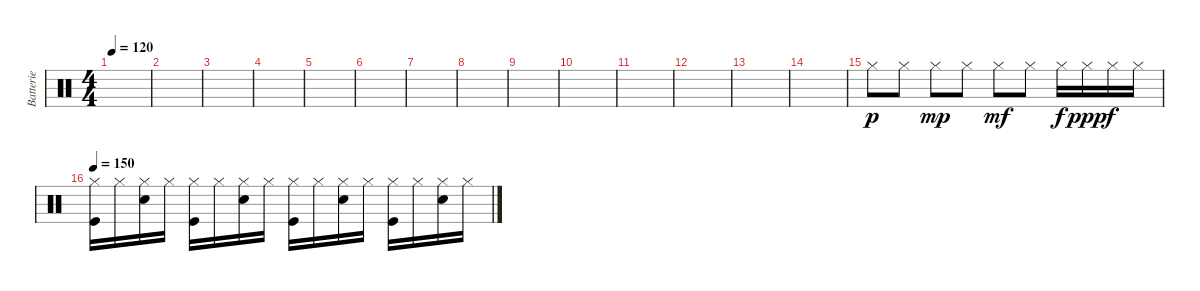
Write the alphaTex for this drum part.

\track ("Batterie" "Batterie") {instrument percussion}
\staff {score}
\articulation defaults
\ts (4 4)
\tempo 120
\clef neutral
\ks c
|
|
|
|
|
|
|
|
|
|
|
|
|
|
"Hi-Hat (closed)".8{dy p} "Hi-Hat (closed)".8 "Hi-Hat (closed)".8{dy mp} "Hi-Hat (closed)".8 "Hi-Hat (closed)".8{dy mf} "Hi-Hat (closed)".8 "Hi-Hat (closed)".16{dy f} "Hi-Hat (closed)".16{dy ppp} "Hi-Hat (closed)".16{dy f} "Hi-Hat (closed)".16 |
\tempo 150
("Hi-Hat (closed)" "Kick (hit)").16 "Hi-Hat (closed)".16 ("Hi-Hat (closed)" "Snare (hit) 2").16 "Hi-Hat (closed)".16 ("Hi-Hat (closed)" "Kick (hit)").16 "Hi-Hat (closed)".16 ("Hi-Hat (closed)" "Snare (hit) 2").16 "Hi-Hat (closed)".16 ("Hi-Hat (closed)" "Kick (hit)").16 "Hi-Hat (closed)".16 ("Hi-Hat (closed)" "Snare (hit) 2").16 "Hi-Hat (closed)".16 ("Hi-Hat (closed)" "Kick (hit)").16 "Hi-Hat (closed)".16 ("Hi-Hat (closed)" "Snare (hit) 2").16 "Hi-Hat (closed)".16
